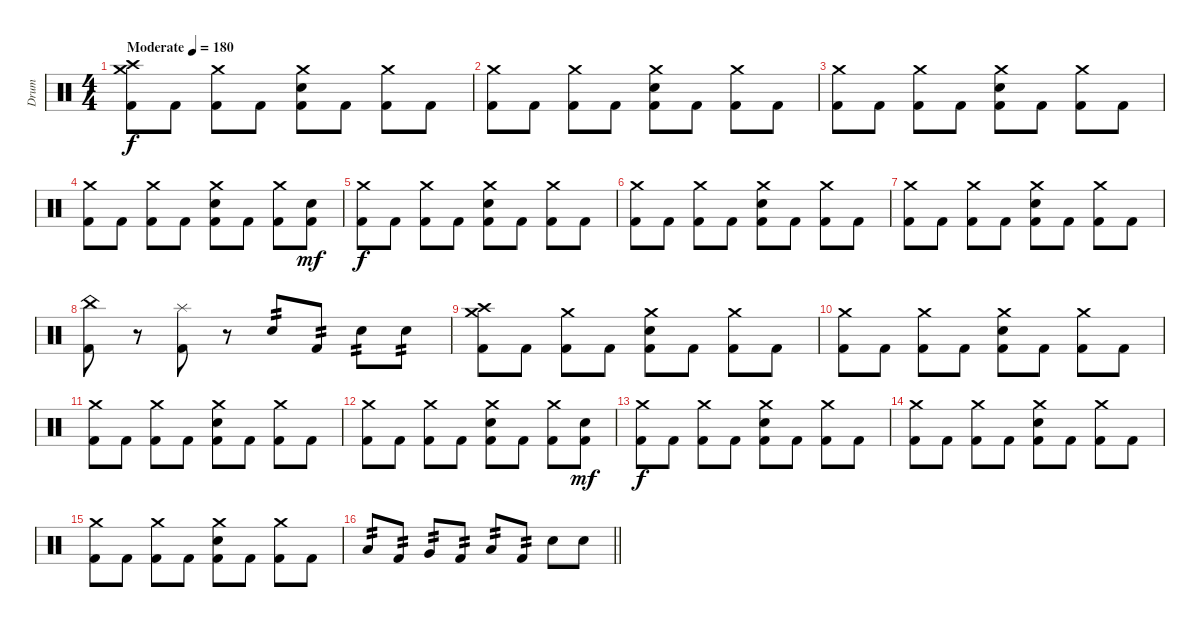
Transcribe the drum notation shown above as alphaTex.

\track ("Drum" "Drum") {instrument percussion}
\staff {score}
\articulation defaults
\ts (4 4)
\section ("" "")
\tempo (180 "Moderate")
\clef neutral
\ks c
("Crash medium (hit)" "Crash high (hit)" "Kick (hit) 2").8{dy f} "Kick (hit) 2".8 ("Crash medium (hit)" "Kick (hit) 2").8 "Kick (hit) 2".8 ("Crash medium (hit)" "Snare (hit) 2" "Kick (hit) 2").8 "Kick (hit) 2".8 ("Crash medium (hit)" "Kick (hit) 2").8 "Kick (hit) 2".8 |
("Crash medium (hit)" "Kick (hit) 2").8 "Kick (hit) 2".8 ("Crash medium (hit)" "Kick (hit) 2").8 "Kick (hit) 2".8 ("Crash medium (hit)" "Snare (hit) 2" "Kick (hit) 2").8 "Kick (hit) 2".8 ("Crash medium (hit)" "Kick (hit) 2").8 "Kick (hit) 2".8 |
("Crash medium (hit)" "Kick (hit) 2").8 "Kick (hit) 2".8 ("Crash medium (hit)" "Kick (hit) 2").8 "Kick (hit) 2".8 ("Crash medium (hit)" "Snare (hit) 2" "Kick (hit) 2").8 "Kick (hit) 2".8 ("Crash medium (hit)" "Kick (hit) 2").8 "Kick (hit) 2".8 |
("Crash medium (hit)" "Kick (hit) 2").8 "Kick (hit) 2".8 ("Crash medium (hit)" "Kick (hit) 2").8 "Kick (hit) 2".8 ("Crash medium (hit)" "Snare (hit) 2" "Kick (hit) 2").8 "Kick (hit) 2".8 ("Crash medium (hit)" "Kick (hit) 2").8 ("Snare (hit) 2" "Kick (hit) 2").8{dy mf} |
("Crash medium (hit)" "Kick (hit) 2").8{dy f} "Kick (hit) 2".8 ("Crash medium (hit)" "Kick (hit) 2").8 "Kick (hit) 2".8 ("Crash medium (hit)" "Snare (hit) 2" "Kick (hit) 2").8 "Kick (hit) 2".8 ("Crash medium (hit)" "Kick (hit) 2").8 "Kick (hit) 2".8 |
("Crash medium (hit)" "Kick (hit) 2").8 "Kick (hit) 2".8 ("Crash medium (hit)" "Kick (hit) 2").8 "Kick (hit) 2".8 ("Crash medium (hit)" "Snare (hit) 2" "Kick (hit) 2").8 "Kick (hit) 2".8 ("Crash medium (hit)" "Kick (hit) 2").8 "Kick (hit) 2".8 |
("Crash medium (hit)" "Kick (hit) 2").8 "Kick (hit) 2".8 ("Crash medium (hit)" "Kick (hit) 2").8 "Kick (hit) 2".8 ("Crash medium (hit)" "Snare (hit) 2" "Kick (hit) 2").8 "Kick (hit) 2".8 ("Crash medium (hit)" "Kick (hit) 2").8 "Kick (hit) 2".8 |
("China (hit)" "Kick (hit) 2").8 r.8 ("Splash (hit)" "Kick (hit) 2").8 r.8 "Snare (hit) 2".8{tp 2} "Kick (hit) 2".8{tp 2} "Snare (hit) 2".8{tp 2} "Snare (hit) 2".8{tp 2} |
("Crash medium (hit)" "Crash high (hit)" "Kick (hit) 2").8 "Kick (hit) 2".8 ("Crash medium (hit)" "Kick (hit) 2").8 "Kick (hit) 2".8 ("Crash medium (hit)" "Snare (hit) 2" "Kick (hit) 2").8 "Kick (hit) 2".8 ("Crash medium (hit)" "Kick (hit) 2").8 "Kick (hit) 2".8 |
("Crash medium (hit)" "Kick (hit) 2").8 "Kick (hit) 2".8 ("Crash medium (hit)" "Kick (hit) 2").8 "Kick (hit) 2".8 ("Crash medium (hit)" "Snare (hit) 2" "Kick (hit) 2").8 "Kick (hit) 2".8 ("Crash medium (hit)" "Kick (hit) 2").8 "Kick (hit) 2".8 |
("Crash medium (hit)" "Kick (hit) 2").8 "Kick (hit) 2".8 ("Crash medium (hit)" "Kick (hit) 2").8 "Kick (hit) 2".8 ("Crash medium (hit)" "Snare (hit) 2" "Kick (hit) 2").8 "Kick (hit) 2".8 ("Crash medium (hit)" "Kick (hit) 2").8 "Kick (hit) 2".8 |
("Crash medium (hit)" "Kick (hit) 2").8 "Kick (hit) 2".8 ("Crash medium (hit)" "Kick (hit) 2").8 "Kick (hit) 2".8 ("Crash medium (hit)" "Snare (hit) 2" "Kick (hit) 2").8 "Kick (hit) 2".8 ("Crash medium (hit)" "Kick (hit) 2").8 ("Snare (hit) 2" "Kick (hit) 2").8{dy mf} |
("Crash medium (hit)" "Kick (hit) 2").8{dy f} "Kick (hit) 2".8 ("Crash medium (hit)" "Kick (hit) 2").8 "Kick (hit) 2".8 ("Crash medium (hit)" "Snare (hit) 2" "Kick (hit) 2").8 "Kick (hit) 2".8 ("Crash medium (hit)" "Kick (hit) 2").8 "Kick (hit) 2".8 |
("Crash medium (hit)" "Kick (hit) 2").8 "Kick (hit) 2".8 ("Crash medium (hit)" "Kick (hit) 2").8 "Kick (hit) 2".8 ("Crash medium (hit)" "Snare (hit) 2" "Kick (hit) 2").8 "Kick (hit) 2".8 ("Crash medium (hit)" "Kick (hit) 2").8 "Kick (hit) 2".8 |
("Crash medium (hit)" "Kick (hit) 2").8 "Kick (hit) 2".8 ("Crash medium (hit)" "Kick (hit) 2").8 "Kick (hit) 2".8 ("Crash medium (hit)" "Snare (hit) 2" "Kick (hit) 2").8 "Kick (hit) 2".8 ("Crash medium (hit)" "Kick (hit) 2").8 "Kick (hit) 2".8 |
\barLineRight lightlight "Low Tom (hit)".8{tp 2} "Kick (hit) 2".8{tp 2} "Very Low Tom (hit)".8{tp 2} "Kick (hit) 2".8{tp 2} "Low Floor Tom (hit)".8{tp 2} "Kick (hit) 2".8{tp 2} "Snare (hit) 2".8 "Snare (hit) 2".8
